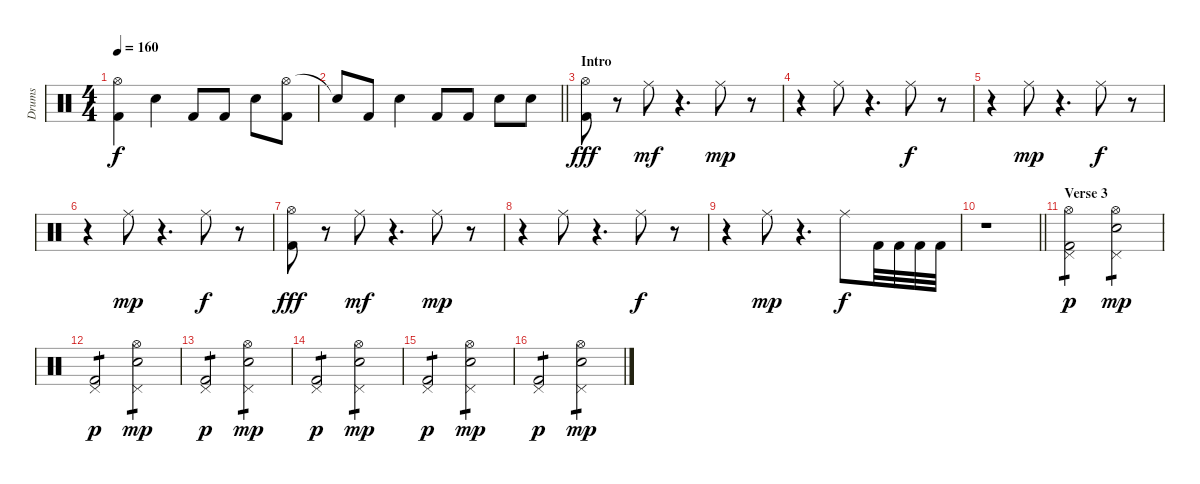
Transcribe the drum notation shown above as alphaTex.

\track ("Drums" "Drums") {instrument percussion}
\staff {score}
\articulation defaults
\ts (4 4)
\tempo 160
\clef neutral
\ks c
("Hi-Hat (open)" "Kick (hit) 2").4{dy f} "Snare (hit) 2".4 "Kick (hit) 2".8 "Kick (hit) 2".8 "Snare (hit) 2".8 ("Hi-Hat (open)" "Kick (hit) 2").8 |
\barLineRight lightlight "Snare (hit)"{t}.8 "Kick (hit) 2".8 "Snare (hit) 2".4 "Kick (hit) 2".8 "Kick (hit) 2".8 "Snare (hit) 2".8 "Snare (hit) 2".8
|
\section ("" "Intro")
("Hi-Hat (open)" "Kick (hit) 2").8{dy fff} r.8 "Ride (middle)".8{dy mf} r.4{d} "Ride (middle)".8{dy mp} r.8 |
r.4 "Ride (middle)".8 r.4{d} "Ride (middle)".8{dy f} r.8 |
r.4 "Ride (middle)".8{dy mp} r.4{d} "Ride (middle)".8{dy f} r.8 |
r.4 "Ride (middle)".8{dy mp} r.4{d} "Ride (middle)".8{dy f} r.8 |
("Hi-Hat (open)" "Kick (hit) 2").8{dy fff} r.8 "Ride (middle)".8{dy mf} r.4{d} "Ride (middle)".8{dy mp} r.8 |
r.4 "Ride (middle)".8 r.4{d} "Ride (middle)".8{dy f} r.8 |
r.4 "Ride (middle)".8{dy mp} r.4{d} "Ride (middle)".8{dy f} "Kick (hit) 2".32 "Kick (hit) 2".32 "Kick (hit) 2".32 "Kick (hit) 2".32 |
\barLineRight lightlight
r.1 |
\section ("" "Verse 3")
("Pedal Hi-Hat (hit)" "Hi-Hat (open)" "Kick (hit) 2").2{tp 1 dy p} ("Pedal Hi-Hat (hit)" "Hi-Hat (open)" "Snare (hit) 2").2{tp 1 dy mp} |
("Pedal Hi-Hat (hit)" "Kick (hit) 2").2{tp 1 dy p} ("Pedal Hi-Hat (hit)" "Hi-Hat (open)" "Snare (hit) 2").2{tp 1 dy mp} |
("Pedal Hi-Hat (hit)" "Kick (hit) 2").2{tp 1 dy p} ("Pedal Hi-Hat (hit)" "Hi-Hat (open)" "Snare (hit) 2").2{tp 1 dy mp} |
("Pedal Hi-Hat (hit)" "Kick (hit) 2").2{tp 1 dy p} ("Pedal Hi-Hat (hit)" "Hi-Hat (open)" "Snare (hit) 2").2{tp 1 dy mp} |
("Pedal Hi-Hat (hit)" "Kick (hit) 2").2{tp 1 dy p} ("Pedal Hi-Hat (hit)" "Hi-Hat (open)" "Snare (hit) 2").2{tp 1 dy mp} |
("Pedal Hi-Hat (hit)" "Kick (hit) 2").2{tp 1 dy p} ("Pedal Hi-Hat (hit)" "Hi-Hat (open)" "Snare (hit) 2").2{tp 1 dy mp}
